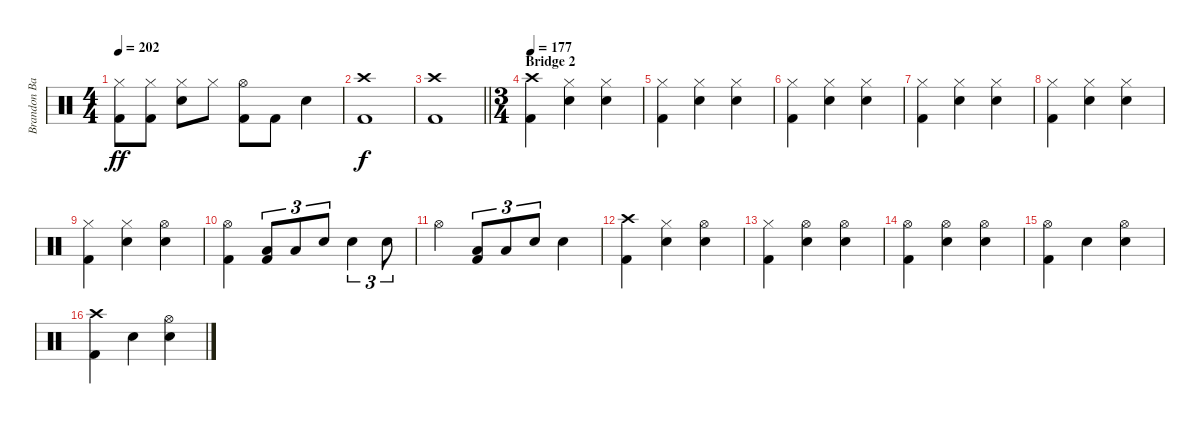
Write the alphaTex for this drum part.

\track ("Brandon Barnes - Drums" "Brandon Ba") {instrument percussion}
\staff {score}
\articulation defaults
\ts (4 4)
\tempo 202
\clef neutral
\ks c
("Kick (hit) 2" "Hi-Hat (closed)").8{dy ff} ("Kick (hit) 2" "Hi-Hat (closed)").8 ("Snare (hit) 2" "Hi-Hat (closed)").8 "Hi-Hat (closed)".8 ("Kick (hit) 2" "Hi-Hat (open)").8 "Kick (hit) 2".8 "Snare (hit) 2".4 |
("Crash high (hit)" "Kick (hit) 2").1{dy f} |
\barLineRight lightlight
("Crash high (hit)" "Kick (hit) 2").1 |
\ts (3 4)
\section ("" "Bridge 2")
\tempo 177
("Crash high (hit)" "Kick (hit) 2").4 ("Snare (hit) 2" "Hi-Hat (closed)").4 ("Snare (hit) 2" "Hi-Hat (closed)").4 |
("Hi-Hat (closed)" "Kick (hit) 2").4 ("Hi-Hat (closed)" "Snare (hit) 2").4 ("Hi-Hat (closed)" "Snare (hit) 2").4 |
("Hi-Hat (closed)" "Kick (hit) 2").4 ("Hi-Hat (closed)" "Snare (hit) 2").4 ("Hi-Hat (closed)" "Snare (hit) 2").4 |
("Hi-Hat (closed)" "Kick (hit) 2").4 ("Hi-Hat (closed)" "Snare (hit) 2").4 ("Hi-Hat (closed)" "Snare (hit) 2").4 |
("Hi-Hat (closed)" "Kick (hit) 2").4 ("Hi-Hat (closed)" "Snare (hit) 2").4 ("Hi-Hat (closed)" "Snare (hit) 2").4 |
("Hi-Hat (closed)" "Kick (hit) 2").4 ("Hi-Hat (closed)" "Snare (hit) 2").4 ("Hi-Hat (open)" "Snare (hit) 2").4 |
("Hi-Hat (open)" "Kick (hit) 2").4 ("Kick (hit) 2" "Low Tom (hit)").8{tu (3 2)} "Low Tom (hit)".8{tu (3 2)} "Snare (hit) 2".8{tu (3 2)} "Snare (hit) 2".4{tu (3 2)} "Snare (hit) 2".8{tu (3 2)} |
"Hi-Hat (open)".4 ("Kick (hit) 2" "Low Tom (hit)").8{tu (3 2)} "Low Tom (hit)".8{tu (3 2)} "Snare (hit) 2".8{tu (3 2)} "Snare (hit) 2".4 |
("Crash high (hit)" "Kick (hit) 2").4 ("Hi-Hat (closed)" "Snare (hit) 2").4 ("Hi-Hat (open)" "Snare (hit) 2").4 |
("Hi-Hat (closed)" "Kick (hit) 2").4 ("Hi-Hat (open)" "Snare (hit) 2").4 ("Hi-Hat (open)" "Snare (hit) 2").4 |
("Hi-Hat (open)" "Kick (hit) 2").4 ("Hi-Hat (open)" "Snare (hit) 2").4 ("Hi-Hat (open)" "Snare (hit) 2").4 |
("Hi-Hat (open)" "Kick (hit) 2").4 "Snare (hit) 2".4 ("Hi-Hat (open)" "Snare (hit) 2").4 |
("Crash high (hit)" "Kick (hit) 2").4 "Snare (hit) 2".4 ("Hi-Hat (open)" "Snare (hit) 2").4
